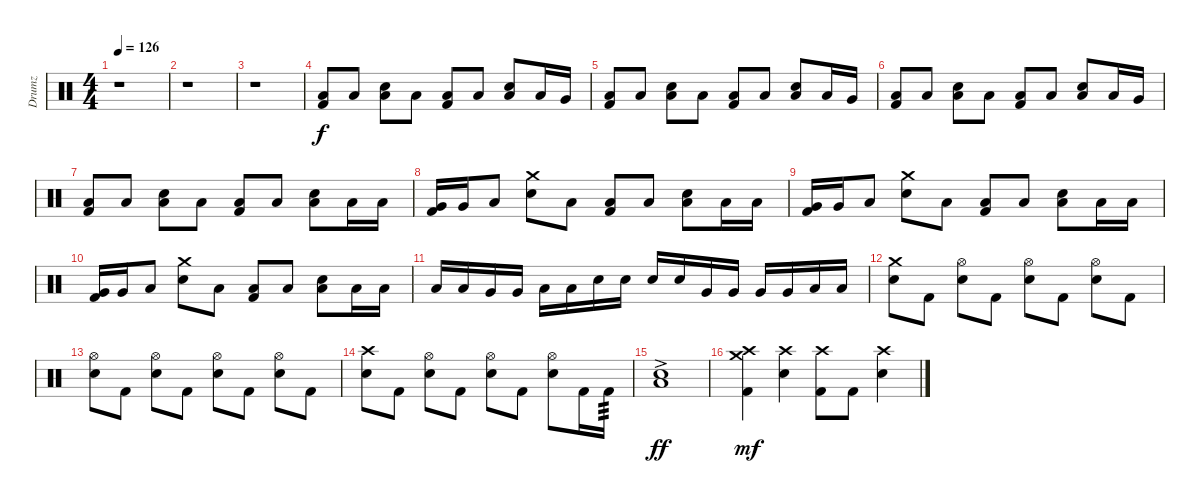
\track ("Drumz" "Drumz") {instrument percussion}
\staff {score}
\articulation defaults
\ts (4 4)
\tempo 126
\clef neutral
\ks c
r.1{dy f} |
r.1 |
r.1 |
("Low Floor Tom (hit)" "Kick (hit) 2").8 "Low Floor Tom (hit)".8 ("Snare (hit) 2" "Low Floor Tom (hit)").8 "Low Floor Tom (hit)".8 ("Low Floor Tom (hit)" "Kick (hit) 2").8 "Low Floor Tom (hit)".8 ("Snare (hit) 2" "Low Floor Tom (hit)").8 "Low Tom (hit)".16 "Very Low Tom (hit)".16 |
("Low Floor Tom (hit)" "Kick (hit) 2").8 "Low Floor Tom (hit)".8 ("Snare (hit) 2" "Low Floor Tom (hit)").8 "Low Floor Tom (hit)".8 ("Low Floor Tom (hit)" "Kick (hit) 2").8 "Low Floor Tom (hit)".8 ("Snare (hit) 2" "Low Floor Tom (hit)").8 "Low Floor Tom (hit)".16 "Very Low Tom (hit)".16 |
("Low Floor Tom (hit)" "Kick (hit) 2").8 "Low Floor Tom (hit)".8 ("Snare (hit) 2" "Low Floor Tom (hit)").8 "Low Floor Tom (hit)".8 ("Low Floor Tom (hit)" "Kick (hit) 2").8 "Low Floor Tom (hit)".8 ("Snare (hit) 2" "Low Floor Tom (hit)").8 "Low Tom (hit)".16 "Very Low Tom (hit)".16 |
("Low Floor Tom (hit)" "Kick (hit) 2").8 "Low Floor Tom (hit)".8 ("Snare (hit) 2" "Low Floor Tom (hit)").8 "Low Floor Tom (hit)".8 ("Low Floor Tom (hit)" "Kick (hit) 2").8 "Low Floor Tom (hit)".8 ("Snare (hit) 2" "Low Floor Tom (hit)").8 "Low Tom (hit)".16 "Low Tom (hit)".16 |
("Very Low Tom (hit)" "Kick (hit) 2").16 "Very Low Tom (hit)".16 "Low Floor Tom (hit)".8 ("Crash medium (hit)" "Snare (hit) 2").8 "Low Floor Tom (hit)".8 ("Low Floor Tom (hit)" "Kick (hit) 2").8 "Low Floor Tom (hit)".8 ("Snare (hit) 2" "Low Floor Tom (hit)").8 "Low Tom (hit)".16 "Low Tom (hit)".16 |
("Very Low Tom (hit)" "Kick (hit) 2").16 "Very Low Tom (hit)".16 "Low Floor Tom (hit)".8 ("Crash medium (hit)" "Snare (hit) 2").8 "Low Floor Tom (hit)".8 ("Low Floor Tom (hit)" "Kick (hit) 2").8 "Low Floor Tom (hit)".8 ("Snare (hit) 2" "Low Floor Tom (hit)").8 "Low Tom (hit)".16 "Low Tom (hit)".16 |
("Very Low Tom (hit)" "Kick (hit) 2").16 "Very Low Tom (hit)".16 "Low Floor Tom (hit)".8 ("Crash medium (hit)" "Snare (hit) 2").8 "Low Floor Tom (hit)".8 ("Low Floor Tom (hit)" "Kick (hit) 2").8 "Low Floor Tom (hit)".8 ("Snare (hit) 2" "Low Floor Tom (hit)").8 "Low Tom (hit)".16 "Low Tom (hit)".16 |
"Low Tom (hit)".16 "Low Tom (hit)".16 "Very Low Tom (hit)".16 "Very Low Tom (hit)".16 "Low Floor Tom (hit)".16 "Low Floor Tom (hit)".16 "Snare (hit) 2".16 "Snare (hit) 2".16 "Snare (hit) 2".16 "Snare (hit) 2".16 "Very Low Tom (hit)".16 "Very Low Tom (hit)".16 "Very Low Tom (hit)".16 "Very Low Tom (hit)".16 "Low Floor Tom (hit)".16 "Low Floor Tom (hit)".16 |
("Crash medium (hit)" "Snare (hit) 2").8 "Kick (hit) 2".8 ("Hi-Hat (open)" "Snare (hit) 2").8 "Kick (hit) 2".8 ("Hi-Hat (open)" "Snare (hit) 2").8 "Kick (hit) 2".8 ("Hi-Hat (open)" "Snare (hit) 2").8 "Kick (hit) 2".8 |
("Hi-Hat (open)" "Snare (hit) 2").8 "Kick (hit) 2".8 ("Hi-Hat (open)" "Snare (hit) 2").8 "Kick (hit) 2".8 ("Hi-Hat (open)" "Snare (hit) 2").8 "Kick (hit) 2".8 ("Hi-Hat (open)" "Snare (hit) 2").8 "Kick (hit) 2".8 |
("Crash high (hit)" "Snare (hit) 2").8 "Kick (hit) 2".8 ("Hi-Hat (open)" "Snare (hit) 2").8 "Kick (hit) 2".8 ("Hi-Hat (open)" "Snare (hit) 2").8 "Kick (hit) 2".8 ("Hi-Hat (open)" "Snare (hit) 2").8 "Kick (hit) 2".16 "Kick (hit) 2".16{tp 3} |
("Low Floor Tom (hit)"{ac} "Snare (hit) 2"{ac}).1{dy ff} |
("Crash high (hit)" "Crash medium (hit)" "Kick (hit) 2").4{dy mf} ("Crash high (hit)" "Snare (hit) 2").4 ("Crash high (hit)" "Kick (hit) 2").8 "Kick (hit) 2".8 ("Crash high (hit)" "Snare (hit) 2").4
